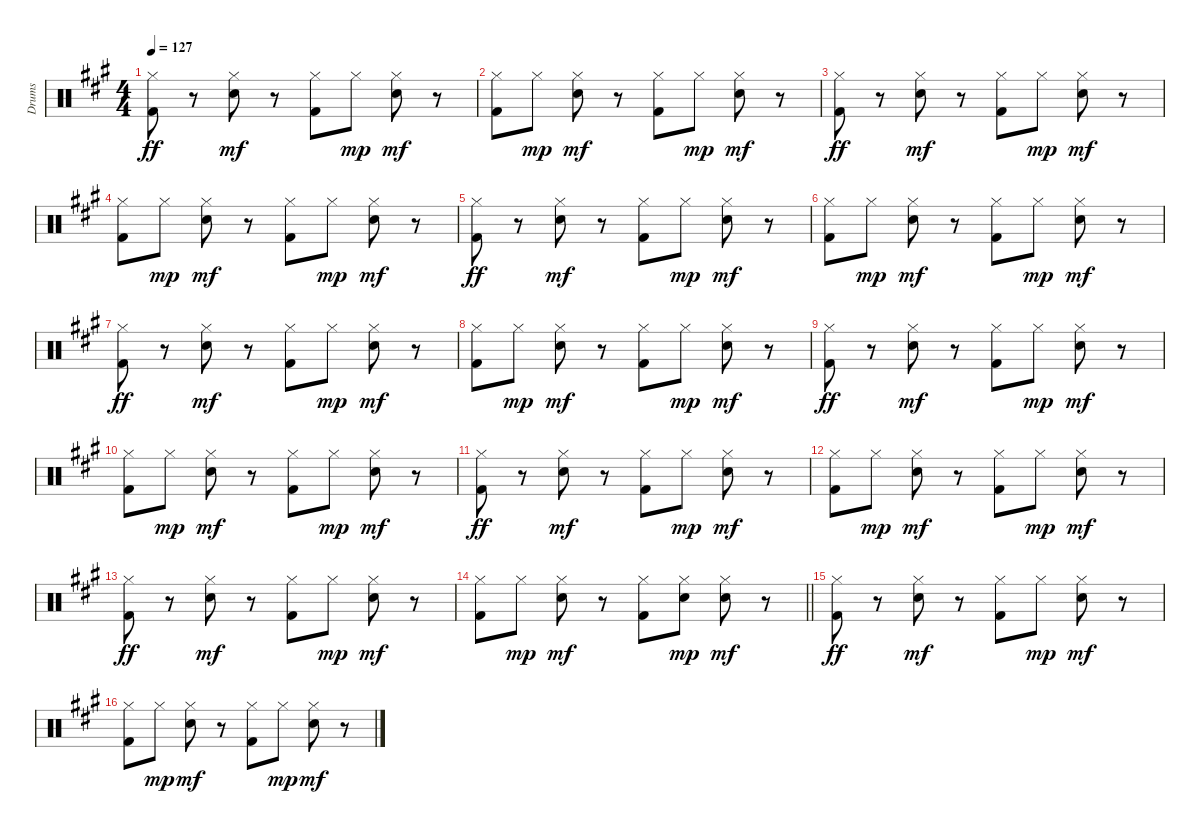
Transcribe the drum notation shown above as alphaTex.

\track ("Drums" "Drums") {instrument percussion}
\staff {score}
\articulation defaults
\ts (4 4)
\tempo 127
\clef neutral
\ks a
("Hi-Hat (closed)" "Kick (hit) 2").8{dy ff} r.8 ("Hi-Hat (closed)" "Snare (hit) 2").8{dy mf} r.8 ("Hi-Hat (closed)" "Kick (hit) 2").8 "Hi-Hat (closed)".8{dy mp} ("Hi-Hat (closed)" "Snare (hit) 2").8{dy mf} r.8 |
("Hi-Hat (closed)" "Kick (hit) 2").8 "Hi-Hat (closed)".8{dy mp} ("Hi-Hat (closed)" "Snare (hit) 2").8{dy mf} r.8 ("Hi-Hat (closed)" "Kick (hit) 2").8 "Hi-Hat (closed)".8{dy mp} ("Hi-Hat (closed)" "Snare (hit) 2").8{dy mf} r.8 |
("Hi-Hat (closed)" "Kick (hit) 2").8{dy ff} r.8 ("Hi-Hat (closed)" "Snare (hit) 2").8{dy mf} r.8 ("Hi-Hat (closed)" "Kick (hit) 2").8 "Hi-Hat (closed)".8{dy mp} ("Hi-Hat (closed)" "Snare (hit) 2").8{dy mf} r.8 |
("Hi-Hat (closed)" "Kick (hit) 2").8 "Hi-Hat (closed)".8{dy mp} ("Hi-Hat (closed)" "Snare (hit) 2").8{dy mf} r.8 ("Hi-Hat (closed)" "Kick (hit) 2").8 "Hi-Hat (closed)".8{dy mp} ("Hi-Hat (closed)" "Snare (hit) 2").8{dy mf} r.8 |
("Hi-Hat (closed)" "Kick (hit) 2").8{dy ff} r.8 ("Hi-Hat (closed)" "Snare (hit) 2").8{dy mf} r.8 ("Hi-Hat (closed)" "Kick (hit) 2").8 "Hi-Hat (closed)".8{dy mp} ("Hi-Hat (closed)" "Snare (hit) 2").8{dy mf} r.8 |
("Hi-Hat (closed)" "Kick (hit) 2").8 "Hi-Hat (closed)".8{dy mp} ("Hi-Hat (closed)" "Snare (hit) 2").8{dy mf} r.8 ("Hi-Hat (closed)" "Kick (hit) 2").8 "Hi-Hat (closed)".8{dy mp} ("Hi-Hat (closed)" "Snare (hit) 2").8{dy mf} r.8 |
("Hi-Hat (closed)" "Kick (hit) 2").8{dy ff} r.8 ("Hi-Hat (closed)" "Snare (hit) 2").8{dy mf} r.8 ("Hi-Hat (closed)" "Kick (hit) 2").8 "Hi-Hat (closed)".8{dy mp} ("Hi-Hat (closed)" "Snare (hit) 2").8{dy mf} r.8 |
("Hi-Hat (closed)" "Kick (hit) 2").8 "Hi-Hat (closed)".8{dy mp} ("Hi-Hat (closed)" "Snare (hit) 2").8{dy mf} r.8 ("Hi-Hat (closed)" "Kick (hit) 2").8 "Hi-Hat (closed)".8{dy mp} ("Hi-Hat (closed)" "Snare (hit) 2").8{dy mf} r.8 |
("Hi-Hat (closed)" "Kick (hit) 2").8{dy ff} r.8 ("Hi-Hat (closed)" "Snare (hit) 2").8{dy mf} r.8 ("Hi-Hat (closed)" "Kick (hit) 2").8 "Hi-Hat (closed)".8{dy mp} ("Hi-Hat (closed)" "Snare (hit) 2").8{dy mf} r.8 |
("Hi-Hat (closed)" "Kick (hit) 2").8 "Hi-Hat (closed)".8{dy mp} ("Hi-Hat (closed)" "Snare (hit) 2").8{dy mf} r.8 ("Hi-Hat (closed)" "Kick (hit) 2").8 "Hi-Hat (closed)".8{dy mp} ("Hi-Hat (closed)" "Snare (hit) 2").8{dy mf} r.8 |
("Hi-Hat (closed)" "Kick (hit) 2").8{dy ff} r.8 ("Hi-Hat (closed)" "Snare (hit) 2").8{dy mf} r.8 ("Hi-Hat (closed)" "Kick (hit) 2").8 "Hi-Hat (closed)".8{dy mp} ("Hi-Hat (closed)" "Snare (hit) 2").8{dy mf} r.8 |
("Hi-Hat (closed)" "Kick (hit) 2").8 "Hi-Hat (closed)".8{dy mp} ("Hi-Hat (closed)" "Snare (hit) 2").8{dy mf} r.8 ("Hi-Hat (closed)" "Kick (hit) 2").8 "Hi-Hat (closed)".8{dy mp} ("Hi-Hat (closed)" "Snare (hit) 2").8{dy mf} r.8 |
("Hi-Hat (closed)" "Kick (hit) 2").8{dy ff} r.8 ("Hi-Hat (closed)" "Snare (hit) 2").8{dy mf} r.8 ("Hi-Hat (closed)" "Kick (hit) 2").8 "Hi-Hat (closed)".8{dy mp} ("Hi-Hat (closed)" "Snare (hit) 2").8{dy mf} r.8 |
\barLineRight lightlight
("Hi-Hat (closed)" "Kick (hit) 2").8 "Hi-Hat (closed)".8{dy mp} ("Hi-Hat (closed)" "Snare (hit) 2").8{dy mf} r.8 ("Hi-Hat (closed)" "Kick (hit) 2").8 ("Hi-Hat (closed)" "Snare (hit) 2").8{dy mp} ("Hi-Hat (closed)" "Snare (hit) 2").8{dy mf} r.8 |
("Hi-Hat (closed)" "Kick (hit) 2").8{dy ff} r.8 ("Hi-Hat (closed)" "Snare (hit) 2").8{dy mf} r.8 ("Hi-Hat (closed)" "Kick (hit) 2").8 "Hi-Hat (closed)".8{dy mp} ("Hi-Hat (closed)" "Snare (hit) 2").8{dy mf} r.8 |
("Hi-Hat (closed)" "Kick (hit) 2").8 "Hi-Hat (closed)".8{dy mp} ("Hi-Hat (closed)" "Snare (hit) 2").8{dy mf} r.8 ("Hi-Hat (closed)" "Kick (hit) 2").8 "Hi-Hat (closed)".8{dy mp} ("Hi-Hat (closed)" "Snare (hit) 2").8{dy mf} r.8
